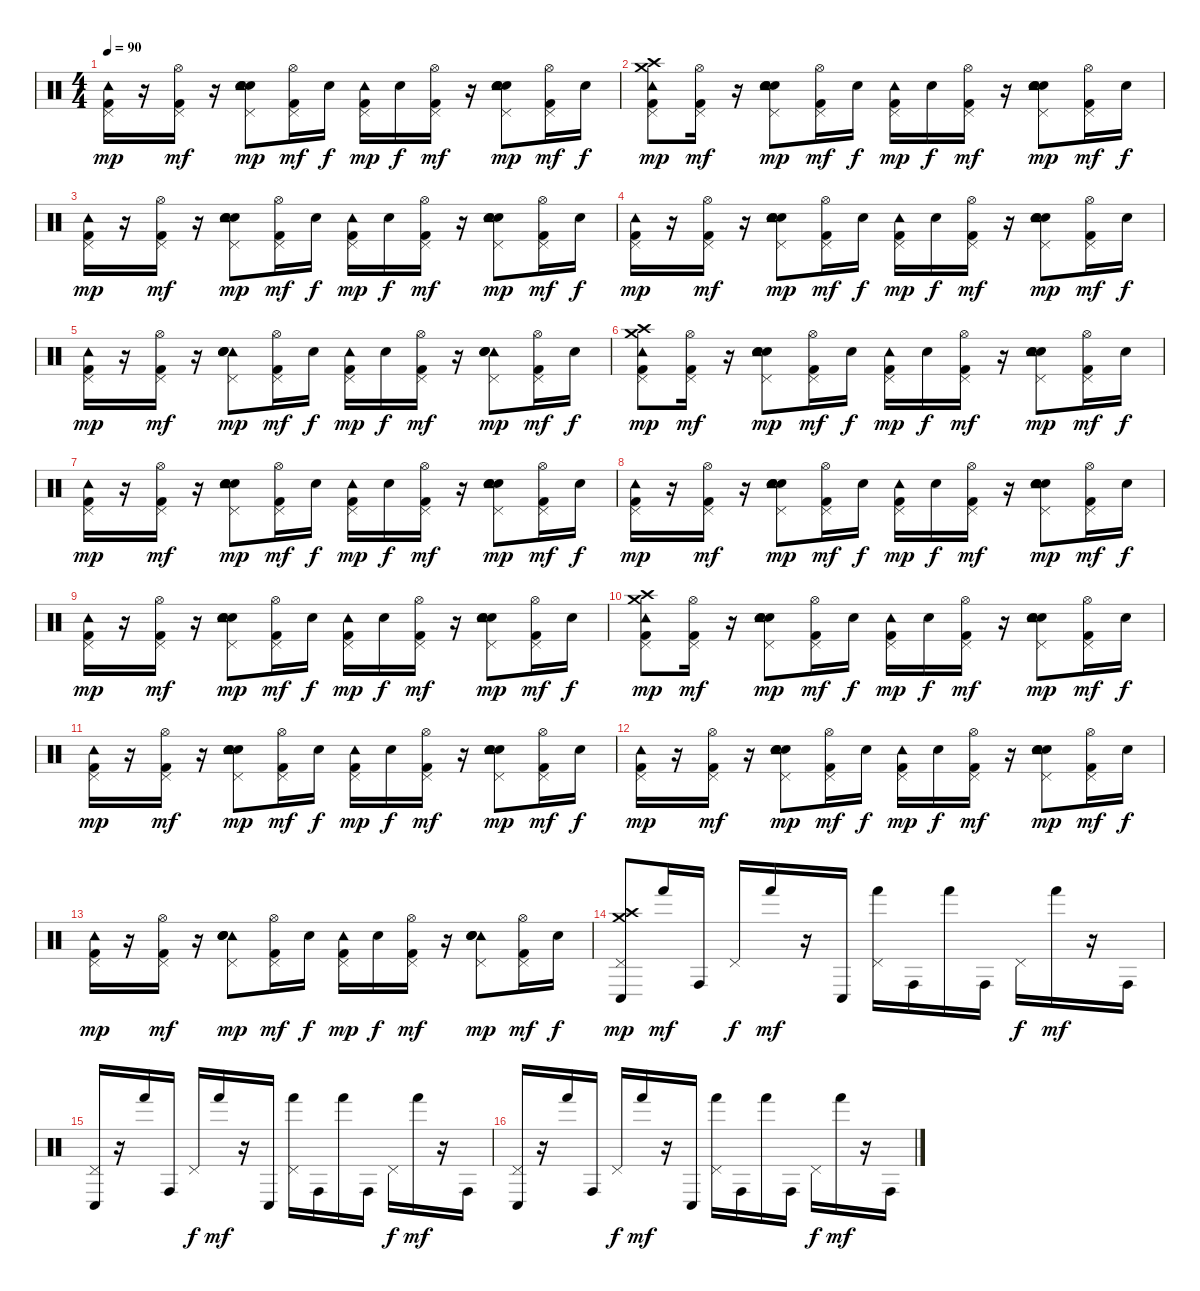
\track "" {instrument percussion}
\staff {score}
\articulation defaults
\ts (4 4)
\tempo 90
\clef neutral
\ks c
("Kick (hit) 2" "Tambourine (hit)" "Pedal Hi-Hat (hit)").16{dy mp} r.16 ("Kick (hit) 2" "Hi-Hat (open)" "Pedal Hi-Hat (hit)").16{dy mf} r.16 ("Electric Snare (hit)" "Hand Clap (hit)" "Snare (hit) 2" "Tambourine (hit)" "Pedal Hi-Hat (hit)").8{dy mp} ("Kick (hit) 2" "Hi-Hat (open)" "Pedal Hi-Hat (hit)").16{dy mf} "Snare (hit) 2".16{dy f} ("Kick (hit) 2" "Tambourine (hit)" "Pedal Hi-Hat (hit)").16{dy mp} "Snare (hit) 2".16{dy f} ("Kick (hit) 2" "Hi-Hat (open)" "Pedal Hi-Hat (hit)").16{dy mf} r.16 ("Electric Snare (hit)" "Hand Clap (hit)" "Snare (hit) 2" "Tambourine (hit)" "Pedal Hi-Hat (hit)").8{dy mp} ("Kick (hit) 2" "Hi-Hat (open)" "Pedal Hi-Hat (hit)").16{dy mf} "Snare (hit) 2".16{dy f} |
("Kick (hit) 2" "Tambourine (hit)" "Crash high (hit)" "Crash medium (hit)" "Pedal Hi-Hat (hit)").8{dy mp} ("Kick (hit) 2" "Hi-Hat (open)" "Pedal Hi-Hat (hit)").16{dy mf} r.16 ("Electric Snare (hit)" "Snare (hit) 2" "Hand Clap (hit)" "Tambourine (hit)" "Pedal Hi-Hat (hit)").8{dy mp} ("Kick (hit) 2" "Hi-Hat (open)" "Pedal Hi-Hat (hit)").16{dy mf} "Snare (hit) 2".16{dy f} ("Kick (hit) 2" "Tambourine (hit)" "Pedal Hi-Hat (hit)").16{dy mp} "Snare (hit) 2".16{dy f} ("Kick (hit) 2" "Hi-Hat (open)" "Pedal Hi-Hat (hit)").16{dy mf} r.16 ("Electric Snare (hit)" "Snare (hit) 2" "Hand Clap (hit)" "Tambourine (hit)" "Pedal Hi-Hat (hit)").8{dy mp} ("Kick (hit) 2" "Hi-Hat (open)" "Pedal Hi-Hat (hit)").16{dy mf} "Snare (hit) 2".16{dy f} |
("Kick (hit) 2" "Tambourine (hit)" "Pedal Hi-Hat (hit)").16{dy mp} r.16 ("Kick (hit) 2" "Hi-Hat (open)" "Pedal Hi-Hat (hit)").16{dy mf} r.16 ("Electric Snare (hit)" "Hand Clap (hit)" "Snare (hit) 2" "Tambourine (hit)" "Pedal Hi-Hat (hit)").8{dy mp} ("Kick (hit) 2" "Hi-Hat (open)" "Pedal Hi-Hat (hit)").16{dy mf} "Snare (hit) 2".16{dy f} ("Kick (hit) 2" "Tambourine (hit)" "Pedal Hi-Hat (hit)").16{dy mp} "Snare (hit) 2".16{dy f} ("Kick (hit) 2" "Hi-Hat (open)" "Pedal Hi-Hat (hit)").16{dy mf} r.16 ("Electric Snare (hit)" "Hand Clap (hit)" "Snare (hit) 2" "Tambourine (hit)" "Pedal Hi-Hat (hit)").8{dy mp} ("Kick (hit) 2" "Hi-Hat (open)" "Pedal Hi-Hat (hit)").16{dy mf} "Snare (hit) 2".16{dy f} |
("Kick (hit) 2" "Tambourine (hit)" "Pedal Hi-Hat (hit)").16{dy mp} r.16 ("Kick (hit) 2" "Hi-Hat (open)" "Pedal Hi-Hat (hit)").16{dy mf} r.16 ("Electric Snare (hit)" "Hand Clap (hit)" "Snare (hit) 2" "Tambourine (hit)" "Pedal Hi-Hat (hit)").8{dy mp} ("Kick (hit) 2" "Hi-Hat (open)" "Pedal Hi-Hat (hit)").16{dy mf} "Snare (hit) 2".16{dy f} ("Kick (hit) 2" "Tambourine (hit)" "Pedal Hi-Hat (hit)").16{dy mp} "Snare (hit) 2".16{dy f} ("Kick (hit) 2" "Hi-Hat (open)" "Pedal Hi-Hat (hit)").16{dy mf} r.16 ("Electric Snare (hit)" "Hand Clap (hit)" "Snare (hit) 2" "Tambourine (hit)" "Pedal Hi-Hat (hit)").8{dy mp} ("Kick (hit) 2" "Hi-Hat (open)" "Pedal Hi-Hat (hit)").16{dy mf} "Snare (hit) 2".16{dy f} |
("Tambourine (hit)" "Pedal Hi-Hat (hit)" "Kick (hit) 2").16{dy mp} r.16 ("Hi-Hat (open)" "Pedal Hi-Hat (hit)" "Kick (hit) 2").16{dy mf} r.16 ("Tambourine (hit)" "Pedal Hi-Hat (hit)" "Electric Snare (hit)" "Hand Clap (hit)" "Snare (hit) 2").8{dy mp} ("Hi-Hat (open)" "Pedal Hi-Hat (hit)" "Kick (hit) 2").16{dy mf} "Snare (hit) 2".16{dy f} ("Tambourine (hit)" "Pedal Hi-Hat (hit)" "Kick (hit) 2").16{dy mp} "Snare (hit) 2".16{dy f} ("Hi-Hat (open)" "Pedal Hi-Hat (hit)" "Kick (hit) 2").16{dy mf} r.16 ("Tambourine (hit)" "Pedal Hi-Hat (hit)" "Electric Snare (hit)" "Hand Clap (hit)" "Snare (hit) 2").8{dy mp} ("Hi-Hat (open)" "Pedal Hi-Hat (hit)" "Kick (hit) 2").16{dy mf} "Snare (hit) 2".16{dy f} |
("Kick (hit) 2" "Tambourine (hit)" "Crash high (hit)" "Crash medium (hit)" "Pedal Hi-Hat (hit)").8{dy mp} ("Kick (hit) 2" "Hi-Hat (open)" "Pedal Hi-Hat (hit)").16{dy mf} r.16 ("Electric Snare (hit)" "Snare (hit) 2" "Hand Clap (hit)" "Tambourine (hit)" "Pedal Hi-Hat (hit)").8{dy mp} ("Kick (hit) 2" "Hi-Hat (open)" "Pedal Hi-Hat (hit)").16{dy mf} "Snare (hit) 2".16{dy f} ("Kick (hit) 2" "Tambourine (hit)" "Pedal Hi-Hat (hit)").16{dy mp} "Snare (hit) 2".16{dy f} ("Kick (hit) 2" "Hi-Hat (open)" "Pedal Hi-Hat (hit)").16{dy mf} r.16 ("Electric Snare (hit)" "Snare (hit) 2" "Hand Clap (hit)" "Tambourine (hit)" "Pedal Hi-Hat (hit)").8{dy mp} ("Kick (hit) 2" "Hi-Hat (open)" "Pedal Hi-Hat (hit)").16{dy mf} "Snare (hit) 2".16{dy f} |
("Kick (hit) 2" "Tambourine (hit)" "Pedal Hi-Hat (hit)").16{dy mp} r.16 ("Kick (hit) 2" "Hi-Hat (open)" "Pedal Hi-Hat (hit)").16{dy mf} r.16 ("Electric Snare (hit)" "Hand Clap (hit)" "Snare (hit) 2" "Tambourine (hit)" "Pedal Hi-Hat (hit)").8{dy mp} ("Kick (hit) 2" "Hi-Hat (open)" "Pedal Hi-Hat (hit)").16{dy mf} "Snare (hit) 2".16{dy f} ("Kick (hit) 2" "Tambourine (hit)" "Pedal Hi-Hat (hit)").16{dy mp} "Snare (hit) 2".16{dy f} ("Kick (hit) 2" "Hi-Hat (open)" "Pedal Hi-Hat (hit)").16{dy mf} r.16 ("Electric Snare (hit)" "Hand Clap (hit)" "Snare (hit) 2" "Tambourine (hit)" "Pedal Hi-Hat (hit)").8{dy mp} ("Kick (hit) 2" "Hi-Hat (open)" "Pedal Hi-Hat (hit)").16{dy mf} "Snare (hit) 2".16{dy f} |
("Kick (hit) 2" "Tambourine (hit)" "Pedal Hi-Hat (hit)").16{dy mp} r.16 ("Kick (hit) 2" "Hi-Hat (open)" "Pedal Hi-Hat (hit)").16{dy mf} r.16 ("Electric Snare (hit)" "Hand Clap (hit)" "Snare (hit) 2" "Tambourine (hit)" "Pedal Hi-Hat (hit)").8{dy mp} ("Kick (hit) 2" "Hi-Hat (open)" "Pedal Hi-Hat (hit)").16{dy mf} "Snare (hit) 2".16{dy f} ("Kick (hit) 2" "Tambourine (hit)" "Pedal Hi-Hat (hit)").16{dy mp} "Snare (hit) 2".16{dy f} ("Kick (hit) 2" "Hi-Hat (open)" "Pedal Hi-Hat (hit)").16{dy mf} r.16 ("Electric Snare (hit)" "Hand Clap (hit)" "Snare (hit) 2" "Tambourine (hit)" "Pedal Hi-Hat (hit)").8{dy mp} ("Kick (hit) 2" "Hi-Hat (open)" "Pedal Hi-Hat (hit)").16{dy mf} "Snare (hit) 2".16{dy f} |
("Kick (hit) 2" "Tambourine (hit)" "Pedal Hi-Hat (hit)").16{dy mp} r.16 ("Kick (hit) 2" "Hi-Hat (open)" "Pedal Hi-Hat (hit)").16{dy mf} r.16 ("Electric Snare (hit)" "Hand Clap (hit)" "Snare (hit) 2" "Tambourine (hit)" "Pedal Hi-Hat (hit)").8{dy mp} ("Kick (hit) 2" "Hi-Hat (open)" "Pedal Hi-Hat (hit)").16{dy mf} "Snare (hit) 2".16{dy f} ("Kick (hit) 2" "Tambourine (hit)" "Pedal Hi-Hat (hit)").16{dy mp} "Snare (hit) 2".16{dy f} ("Kick (hit) 2" "Hi-Hat (open)" "Pedal Hi-Hat (hit)").16{dy mf} r.16 ("Electric Snare (hit)" "Hand Clap (hit)" "Snare (hit) 2" "Tambourine (hit)" "Pedal Hi-Hat (hit)").8{dy mp} ("Kick (hit) 2" "Hi-Hat (open)" "Pedal Hi-Hat (hit)").16{dy mf} "Snare (hit) 2".16{dy f} |
("Kick (hit) 2" "Tambourine (hit)" "Crash high (hit)" "Crash medium (hit)" "Pedal Hi-Hat (hit)").8{dy mp} ("Kick (hit) 2" "Hi-Hat (open)" "Pedal Hi-Hat (hit)").16{dy mf} r.16 ("Electric Snare (hit)" "Snare (hit) 2" "Hand Clap (hit)" "Tambourine (hit)" "Pedal Hi-Hat (hit)").8{dy mp} ("Kick (hit) 2" "Hi-Hat (open)" "Pedal Hi-Hat (hit)").16{dy mf} "Snare (hit) 2".16{dy f} ("Kick (hit) 2" "Tambourine (hit)" "Pedal Hi-Hat (hit)").16{dy mp} "Snare (hit) 2".16{dy f} ("Kick (hit) 2" "Hi-Hat (open)" "Pedal Hi-Hat (hit)").16{dy mf} r.16 ("Electric Snare (hit)" "Snare (hit) 2" "Hand Clap (hit)" "Tambourine (hit)" "Pedal Hi-Hat (hit)").8{dy mp} ("Kick (hit) 2" "Hi-Hat (open)" "Pedal Hi-Hat (hit)").16{dy mf} "Snare (hit) 2".16{dy f} |
("Kick (hit) 2" "Tambourine (hit)" "Pedal Hi-Hat (hit)").16{dy mp} r.16 ("Kick (hit) 2" "Hi-Hat (open)" "Pedal Hi-Hat (hit)").16{dy mf} r.16 ("Electric Snare (hit)" "Hand Clap (hit)" "Snare (hit) 2" "Tambourine (hit)" "Pedal Hi-Hat (hit)").8{dy mp} ("Kick (hit) 2" "Hi-Hat (open)" "Pedal Hi-Hat (hit)").16{dy mf} "Snare (hit) 2".16{dy f} ("Kick (hit) 2" "Tambourine (hit)" "Pedal Hi-Hat (hit)").16{dy mp} "Snare (hit) 2".16{dy f} ("Kick (hit) 2" "Hi-Hat (open)" "Pedal Hi-Hat (hit)").16{dy mf} r.16 ("Electric Snare (hit)" "Hand Clap (hit)" "Snare (hit) 2" "Tambourine (hit)" "Pedal Hi-Hat (hit)").8{dy mp} ("Kick (hit) 2" "Hi-Hat (open)" "Pedal Hi-Hat (hit)").16{dy mf} "Snare (hit) 2".16{dy f} |
("Kick (hit) 2" "Tambourine (hit)" "Pedal Hi-Hat (hit)").16{dy mp} r.16 ("Kick (hit) 2" "Hi-Hat (open)" "Pedal Hi-Hat (hit)").16{dy mf} r.16 ("Electric Snare (hit)" "Hand Clap (hit)" "Snare (hit) 2" "Tambourine (hit)" "Pedal Hi-Hat (hit)").8{dy mp} ("Kick (hit) 2" "Hi-Hat (open)" "Pedal Hi-Hat (hit)").16{dy mf} "Snare (hit) 2".16{dy f} ("Kick (hit) 2" "Tambourine (hit)" "Pedal Hi-Hat (hit)").16{dy mp} "Snare (hit) 2".16{dy f} ("Kick (hit) 2" "Hi-Hat (open)" "Pedal Hi-Hat (hit)").16{dy mf} r.16 ("Electric Snare (hit)" "Hand Clap (hit)" "Snare (hit) 2" "Tambourine (hit)" "Pedal Hi-Hat (hit)").8{dy mp} ("Kick (hit) 2" "Hi-Hat (open)" "Pedal Hi-Hat (hit)").16{dy mf} "Snare (hit) 2".16{dy f} |
("Tambourine (hit)" "Pedal Hi-Hat (hit)" "Kick (hit) 2").16{dy mp} r.16 ("Hi-Hat (open)" "Pedal Hi-Hat (hit)" "Kick (hit) 2").16{dy mf} r.16 ("Tambourine (hit)" "Pedal Hi-Hat (hit)" "Electric Snare (hit)" "Hand Clap (hit)" "Snare (hit) 2").8{dy mp} ("Hi-Hat (open)" "Pedal Hi-Hat (hit)" "Kick (hit) 2").16{dy mf} "Snare (hit) 2".16{dy f} ("Tambourine (hit)" "Pedal Hi-Hat (hit)" "Kick (hit) 2").16{dy mp} "Snare (hit) 2".16{dy f} ("Hi-Hat (open)" "Pedal Hi-Hat (hit)" "Kick (hit) 2").16{dy mf} r.16 ("Tambourine (hit)" "Pedal Hi-Hat (hit)" "Electric Snare (hit)" "Hand Clap (hit)" "Snare (hit) 2").8{dy mp} ("Hi-Hat (open)" "Pedal Hi-Hat (hit)" "Kick (hit) 2").16{dy mf} "Snare (hit) 2".16{dy f} |
("Conga low (hit)" "Crash high (hit)" "Crash medium (hit)" "Pedal Hi-Hat (hit)").8{dy mp} "Hand (hit)".16{dy mf} "Conga high (hit)".16 "Pedal Hi-Hat (hit)".16{dy f} "Hand (hit)".16{dy mf} r.16 "Conga low (hit)".16 ("Hand (hit)" "Pedal Hi-Hat (hit)").16 "Conga high (hit)".16 "Hand (hit)".16 "Conga high (hit)".16 "Pedal Hi-Hat (hit)".16{dy f} "Hand (hit)".16{dy mf} r.16 "Conga high (hit)".16 |
("Conga low (hit)" "Pedal Hi-Hat (hit)").16 r.16 "Hand (hit)".16 "Conga high (hit)".16 "Pedal Hi-Hat (hit)".16{dy f} "Hand (hit)".16{dy mf} r.16 "Conga low (hit)".16 ("Hand (hit)" "Pedal Hi-Hat (hit)").16 "Conga high (hit)".16 "Hand (hit)".16 "Conga high (hit)".16 "Pedal Hi-Hat (hit)".16{dy f} "Hand (hit)".16{dy mf} r.16 "Conga high (hit)".16 |
("Conga low (hit)" "Pedal Hi-Hat (hit)").16 r.16 "Hand (hit)".16 "Conga high (hit)".16 "Pedal Hi-Hat (hit)".16{dy f} "Hand (hit)".16{dy mf} r.16 "Conga low (hit)".16 ("Hand (hit)" "Pedal Hi-Hat (hit)").16 "Conga high (hit)".16 "Hand (hit)".16 "Conga high (hit)".16 "Pedal Hi-Hat (hit)".16{dy f} "Hand (hit)".16{dy mf} r.16 "Conga high (hit)".16
